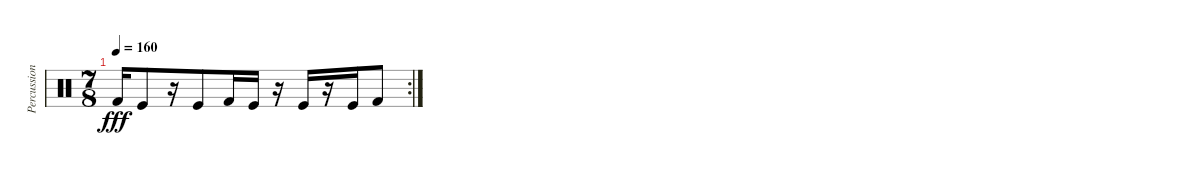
\track ("Percussion" "Percussion") {instrument percussion}
\staff {score}
\articulation defaults
\rc 2
\ts (7 8)
\tempo 160
\clef neutral
\ks c "Kick (hit) 2".16{dy fff} "Kick (hit)".8
r.16 "Kick (hit)".8 "Kick (hit) 2".16 "Kick (hit)".16 r.16 "Kick (hit)".16 r.16 "Kick (hit)".16 "Kick (hit) 2".8
